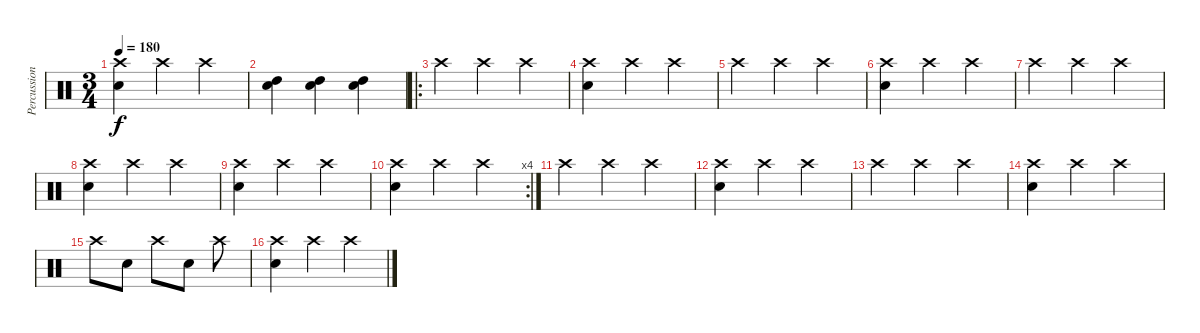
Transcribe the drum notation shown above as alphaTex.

\track ("Percussion" "Percussion") {instrument percussion}
\staff {score}
\articulation defaults
\ts (3 4)
\tempo 180
\clef neutral
\ks c
("Crash high (hit)" "Snare (hit) 2").4{dy f} "Crash high (hit)".4 "Crash high (hit)".4 |
("Snare (hit) 2" "High Tom (hit)").4 ("Snare (hit) 2" "High Tom (hit)").4 ("Snare (hit) 2" "High Tom (hit)").4 |
\ro "Crash high (hit)".4 "Crash high (hit)".4 "Crash high (hit)".4
|
("Crash high (hit)" "Snare (hit) 2").4 "Crash high (hit)".4 "Crash high (hit)".4 |
"Crash high (hit)".4 "Crash high (hit)".4 "Crash high (hit)".4 |
("Crash high (hit)" "Snare (hit) 2").4 "Crash high (hit)".4 "Crash high (hit)".4 |
"Crash high (hit)".4 "Crash high (hit)".4 "Crash high (hit)".4 |
("Crash high (hit)" "Snare (hit) 2").4 "Crash high (hit)".4 "Crash high (hit)".4 |
("Crash high (hit)" "Snare (hit) 2").4 "Crash high (hit)".4 "Crash high (hit)".4 |
\rc 4
("Crash high (hit)" "Snare (hit) 2").4 "Crash high (hit)".4 "Crash high (hit)".4 |
"Crash high (hit)".4 "Crash high (hit)".4 "Crash high (hit)".4 |
("Crash high (hit)" "Snare (hit) 2").4 "Crash high (hit)".4 "Crash high (hit)".4 |
"Crash high (hit)".4 "Crash high (hit)".4 "Crash high (hit)".4 |
("Crash high (hit)" "Snare (hit) 2").4 "Crash high (hit)".4 "Crash high (hit)".4 |
"Crash high (hit)".8 "Snare (hit) 2".8 "Crash high (hit)".8 "Snare (hit) 2".8 "Crash high (hit)".8 |
("Crash high (hit)" "Snare (hit) 2").4 "Crash high (hit)".4 "Crash high (hit)".4
